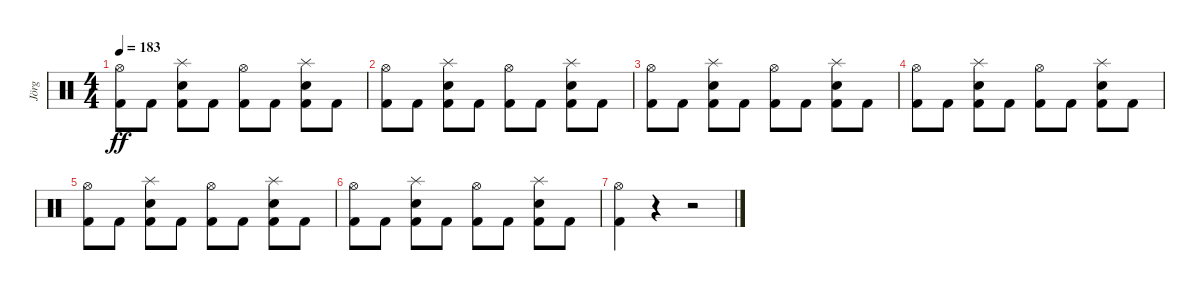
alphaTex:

\track ("Jörg" "Jörg") {instrument percussion}
\staff {score}
\articulation defaults
\ts (4 4)
\tempo 183
\clef neutral
\ks c
("Kick (hit) 2" "Hi-Hat (open)").8{dy ff volume 11} "Kick (hit) 2".8{volume 10} ("Snare (hit) 2" "Kick (hit) 2" "Splash (hit)").8{volume 10} "Kick (hit) 2".8{volume 10} ("Kick (hit) 2" "Hi-Hat (open)").8{volume 10} "Kick (hit) 2".8{volume 10} ("Snare (hit) 2" "Kick (hit) 2" "Splash (hit)").8{volume 9} "Kick (hit) 2".8{volume 9} |
("Hi-Hat (open)" "Kick (hit) 2").8{volume 9} "Kick (hit) 2".8{volume 9} ("Snare (hit) 2" "Kick (hit) 2" "Splash (hit)").8{volume 8} "Kick (hit) 2".8{volume 8} ("Kick (hit) 2" "Hi-Hat (open)").8{volume 8} "Kick (hit) 2".8{volume 8} ("Snare (hit) 2" "Kick (hit) 2" "Splash (hit)").8{volume 8} "Kick (hit) 2".8{volume 7} |
("Kick (hit) 2" "Hi-Hat (open)").8{volume 7} "Kick (hit) 2".8{volume 7} ("Snare (hit) 2" "Kick (hit) 2" "Splash (hit)").8{volume 7} "Kick (hit) 2".8{volume 6} ("Kick (hit) 2" "Hi-Hat (open)").8{volume 6} "Kick (hit) 2".8{volume 6} ("Snare (hit) 2" "Kick (hit) 2" "Splash (hit)").8{volume 6} "Kick (hit) 2".8{volume 6} |
("Hi-Hat (open)" "Kick (hit) 2").8{volume 5} "Kick (hit) 2".8{volume 5} ("Snare (hit) 2" "Kick (hit) 2" "Splash (hit)").8{volume 5} "Kick (hit) 2".8{volume 5} ("Kick (hit) 2" "Hi-Hat (open)").8{volume 4} "Kick (hit) 2".8{volume 4} ("Snare (hit) 2" "Kick (hit) 2" "Splash (hit)").8{volume 4} "Kick (hit) 2".8{volume 4} |
("Kick (hit) 2" "Hi-Hat (open)").8{volume 4} "Kick (hit) 2".8{volume 3} ("Snare (hit) 2" "Kick (hit) 2" "Splash (hit)").8{volume 3} "Kick (hit) 2".8{volume 3} ("Kick (hit) 2" "Hi-Hat (open)").8{volume 3} "Kick (hit) 2".8{volume 2} ("Snare (hit) 2" "Kick (hit) 2" "Splash (hit)").8{volume 2} "Kick (hit) 2".8{volume 2} |
("Hi-Hat (open)" "Kick (hit) 2").8{volume 2} "Kick (hit) 2".8{volume 2} ("Snare (hit) 2" "Kick (hit) 2" "Splash (hit)").8{volume 1} "Kick (hit) 2".8{volume 1} ("Kick (hit) 2" "Hi-Hat (open)").8{volume 1} "Kick (hit) 2".8{volume 1} ("Snare (hit) 2" "Kick (hit) 2" "Splash (hit)").8{volume 0} "Kick (hit) 2".8{volume 0} |
("Kick (hit) 2" "Hi-Hat (open)").4{volume 0} r.4 r.2
